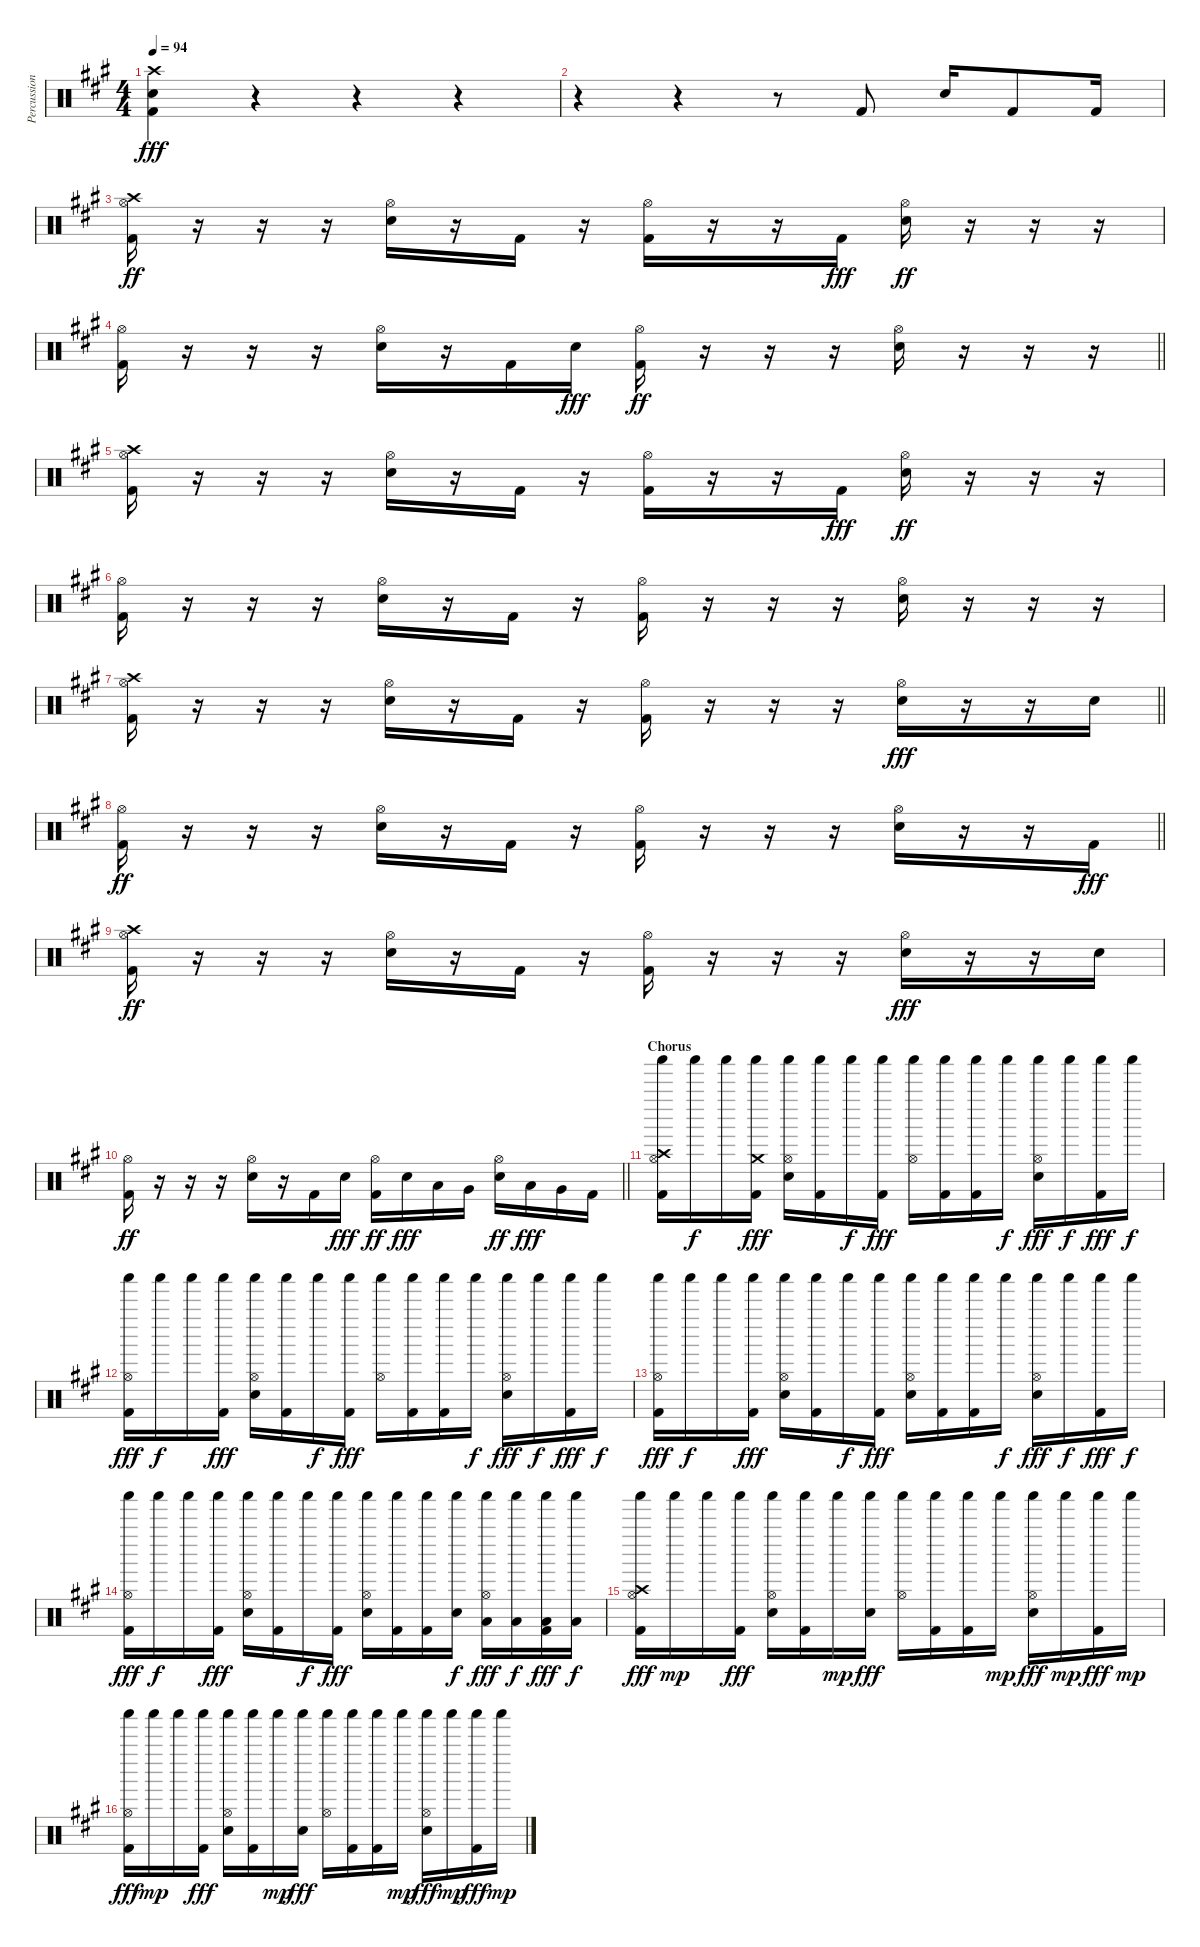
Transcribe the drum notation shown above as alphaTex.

\track ("Percussion" "Percussion") {instrument percussion}
\staff {score}
\articulation defaults
\ts (4 4)
\tempo 94
\clef neutral
\ks a
("Crash high (hit)" "Snare (hit) 2" "Kick (hit) 2").4{dy fff} r.4 r.4 r.4 |
r.4 r.4 r.8 "Kick (hit) 2".8 "Snare (hit) 2".16 "Kick (hit) 2".8 "Kick (hit) 2".16 |
("Crash high (hit)" "Hi-Hat (open)" "Kick (hit) 2").16{dy ff} r.16 r.16 r.16 ("Hi-Hat (open)" "Snare (hit) 2").16 r.16 "Kick (hit) 2".16 r.16 ("Hi-Hat (open)" "Kick (hit) 2").16 r.16 r.16 "Kick (hit) 2".16{dy fff} ("Hi-Hat (open)" "Snare (hit) 2").16{dy ff} r.16 r.16 r.16 |
\barLineRight lightlight
("Hi-Hat (open)" "Kick (hit) 2").16 r.16 r.16 r.16 ("Hi-Hat (open)" "Snare (hit) 2").16 r.16 "Kick (hit) 2".16 "Snare (hit) 2".16{dy fff} ("Hi-Hat (open)" "Kick (hit) 2").16{dy ff} r.16 r.16 r.16 ("Hi-Hat (open)" "Snare (hit) 2").16 r.16 r.16 r.16 |
("Crash high (hit)" "Hi-Hat (open)" "Kick (hit) 2").16 r.16 r.16 r.16 ("Hi-Hat (open)" "Snare (hit) 2").16 r.16 "Kick (hit) 2".16 r.16 ("Hi-Hat (open)" "Kick (hit) 2").16 r.16 r.16 "Kick (hit) 2".16{dy fff} ("Hi-Hat (open)" "Snare (hit) 2").16{dy ff} r.16 r.16 r.16 |
("Hi-Hat (open)" "Kick (hit) 2").16 r.16 r.16 r.16 ("Hi-Hat (open)" "Snare (hit) 2").16 r.16 "Kick (hit) 2".16 r.16 ("Hi-Hat (open)" "Kick (hit) 2").16 r.16 r.16 r.16 ("Hi-Hat (open)" "Snare (hit) 2").16 r.16 r.16 r.16 |
\barLineRight lightlight
("Crash high (hit)" "Hi-Hat (open)" "Kick (hit) 2").16 r.16 r.16 r.16 ("Hi-Hat (open)" "Snare (hit) 2").16 r.16 "Kick (hit) 2".16 r.16 ("Hi-Hat (open)" "Kick (hit) 2").16 r.16 r.16 r.16 ("Hi-Hat (open)" "Snare (hit) 2").16{dy fff} r.16 r.16 "Snare (hit) 2".16 |
\barLineRight lightlight
("Hi-Hat (open)" "Kick (hit) 2").16{dy ff} r.16 r.16 r.16 ("Hi-Hat (open)" "Snare (hit) 2").16 r.16 "Kick (hit) 2".16 r.16 ("Hi-Hat (open)" "Kick (hit) 2").16 r.16 r.16 r.16 ("Hi-Hat (open)" "Snare (hit) 2").16 r.16 r.16 "Kick (hit) 2".16{dy fff} |
("Crash high (hit)" "Hi-Hat (open)" "Kick (hit) 2").16{dy ff} r.16 r.16 r.16 ("Hi-Hat (open)" "Snare (hit) 2").16 r.16 "Kick (hit) 2".16 r.16 ("Hi-Hat (open)" "Kick (hit) 2").16 r.16 r.16 r.16 ("Hi-Hat (open)" "Snare (hit) 2").16{dy fff} r.16 r.16 "Snare (hit) 2".16 |
\barLineRight lightlight
("Hi-Hat (open)" "Kick (hit) 2").16{dy ff} r.16 r.16 r.16 ("Hi-Hat (open)" "Snare (hit) 2").16 r.16 "Kick (hit) 2".16 "Snare (hit) 2".16{dy fff} ("Hi-Hat (open)" "Kick (hit) 2").16{dy ff} "Snare (hit) 2".16{dy fff} "Low Tom (hit)".16 "Very Low Tom (hit)".16 ("Hi-Hat (open)" "Snare (hit) 2").16{dy ff} "Low Tom (hit)".16{dy fff} "Very Low Tom (hit)".16 "Kick (hit) 2".16 |
\section ("" "Chorus")
("Shaker (hit)" "Hi-Hat (open)" "Crash high (hit)" "Kick (hit) 2").16 "Shaker (hit)".16{dy f} "Shaker (hit)".16 ("Shaker (hit)" "Kick (hit) 2" "Crash medium (hit)").16{dy fff} ("Shaker (hit)" "Hi-Hat (open)" "Snare (hit) 2").16 ("Shaker (hit)" "Kick (hit) 2").16 "Shaker (hit)".16{dy f} ("Shaker (hit)" "Kick (hit) 2").16{dy fff} ("Shaker (hit)" "Hi-Hat (open)").16 ("Shaker (hit)" "Kick (hit) 2").16 ("Shaker (hit)" "Kick (hit) 2").16 "Shaker (hit)".16{dy f} ("Shaker (hit)" "Hi-Hat (open)" "Snare (hit) 2").16{dy fff} "Shaker (hit)".16{dy f} ("Shaker (hit)" "Kick (hit) 2").16{dy fff} "Shaker (hit)".16{dy f} |
("Shaker (hit)" "Hi-Hat (open)" "Kick (hit) 2").16{dy fff} "Shaker (hit)".16{dy f} "Shaker (hit)".16 ("Shaker (hit)" "Kick (hit) 2").16{dy fff} ("Shaker (hit)" "Hi-Hat (open)" "Snare (hit) 2").16 ("Shaker (hit)" "Kick (hit) 2").16 "Shaker (hit)".16{dy f} ("Shaker (hit)" "Kick (hit) 2").16{dy fff} ("Shaker (hit)" "Hi-Hat (open)").16 ("Shaker (hit)" "Kick (hit) 2").16 ("Shaker (hit)" "Kick (hit) 2").16 "Shaker (hit)".16{dy f} ("Shaker (hit)" "Hi-Hat (open)" "Snare (hit) 2").16{dy fff} "Shaker (hit)".16{dy f} ("Shaker (hit)" "Kick (hit) 2").16{dy fff} "Shaker (hit)".16{dy f} |
("Shaker (hit)" "Hi-Hat (open)" "Kick (hit) 2").16{dy fff} "Shaker (hit)".16{dy f} "Shaker (hit)".16 ("Shaker (hit)" "Kick (hit) 2").16{dy fff} ("Shaker (hit)" "Hi-Hat (open)" "Snare (hit) 2").16 ("Shaker (hit)" "Kick (hit) 2").16 "Shaker (hit)".16{dy f} ("Shaker (hit)" "Kick (hit) 2").16{dy fff} ("Shaker (hit)" "Hi-Hat (open)" "Snare (hit) 2").16 ("Shaker (hit)" "Kick (hit) 2").16 ("Shaker (hit)" "Kick (hit) 2").16 "Shaker (hit)".16{dy f} ("Shaker (hit)" "Hi-Hat (open)" "Snare (hit) 2").16{dy fff} "Shaker (hit)".16{dy f} ("Shaker (hit)" "Kick (hit) 2").16{dy fff} "Shaker (hit)".16{dy f} |
("Shaker (hit)" "Hi-Hat (open)" "Kick (hit) 2").16{dy fff} "Shaker (hit)".16{dy f} "Shaker (hit)".16 ("Shaker (hit)" "Kick (hit) 2").16{dy fff} ("Shaker (hit)" "Hi-Hat (open)" "Snare (hit) 2").16 ("Shaker (hit)" "Kick (hit) 2").16 "Shaker (hit)".16{dy f} ("Shaker (hit)" "Kick (hit) 2").16{dy fff} ("Shaker (hit)" "Hi-Hat (open)" "Snare (hit) 2").16 ("Shaker (hit)" "Kick (hit) 2").16 ("Shaker (hit)" "Kick (hit) 2").16 ("Shaker (hit)" "Snare (hit) 2").16{dy f} ("Shaker (hit)" "Hi-Hat (open)" "Low Tom (hit)").16{dy fff} ("Shaker (hit)" "Low Tom (hit)").16{dy f} ("Shaker (hit)" "Low Tom (hit)" "Kick (hit) 2").16{dy fff} ("Shaker (hit)" "Low Tom (hit)").16{dy f} |
("Shaker (hit)" "Hi-Hat (open)" "Crash high (hit)" "Kick (hit) 2").16{dy fff} "Shaker (hit)".16{dy mp} "Shaker (hit)".16 ("Shaker (hit)" "Kick (hit) 2").16{dy fff} ("Shaker (hit)" "Hi-Hat (open)" "Snare (hit) 2").16 ("Shaker (hit)" "Kick (hit) 2").16 "Shaker (hit)".16{dy mp} ("Shaker (hit)" "Snare (hit) 2").16{dy fff} ("Shaker (hit)" "Hi-Hat (open)").16 ("Shaker (hit)" "Kick (hit) 2").16 ("Shaker (hit)" "Kick (hit) 2").16 "Shaker (hit)".16{dy mp} ("Shaker (hit)" "Hi-Hat (open)" "Snare (hit) 2").16{dy fff} "Shaker (hit)".16{dy mp} ("Shaker (hit)" "Kick (hit) 2").16{dy fff} "Shaker (hit)".16{dy mp} |
("Shaker (hit)" "Hi-Hat (open)" "Kick (hit) 2").16{dy fff} "Shaker (hit)".16{dy mp} "Shaker (hit)".16 ("Shaker (hit)" "Kick (hit) 2").16{dy fff} ("Shaker (hit)" "Hi-Hat (open)" "Snare (hit) 2").16 ("Shaker (hit)" "Kick (hit) 2").16 "Shaker (hit)".16{dy mp} ("Shaker (hit)" "Snare (hit) 2").16{dy fff} ("Shaker (hit)" "Hi-Hat (open)").16 ("Shaker (hit)" "Kick (hit) 2").16 ("Shaker (hit)" "Kick (hit) 2").16 "Shaker (hit)".16{dy mp} ("Shaker (hit)" "Hi-Hat (open)" "Snare (hit) 2").16{dy fff} "Shaker (hit)".16{dy mp} ("Shaker (hit)" "Kick (hit) 2").16{dy fff} "Shaker (hit)".16{dy mp}
